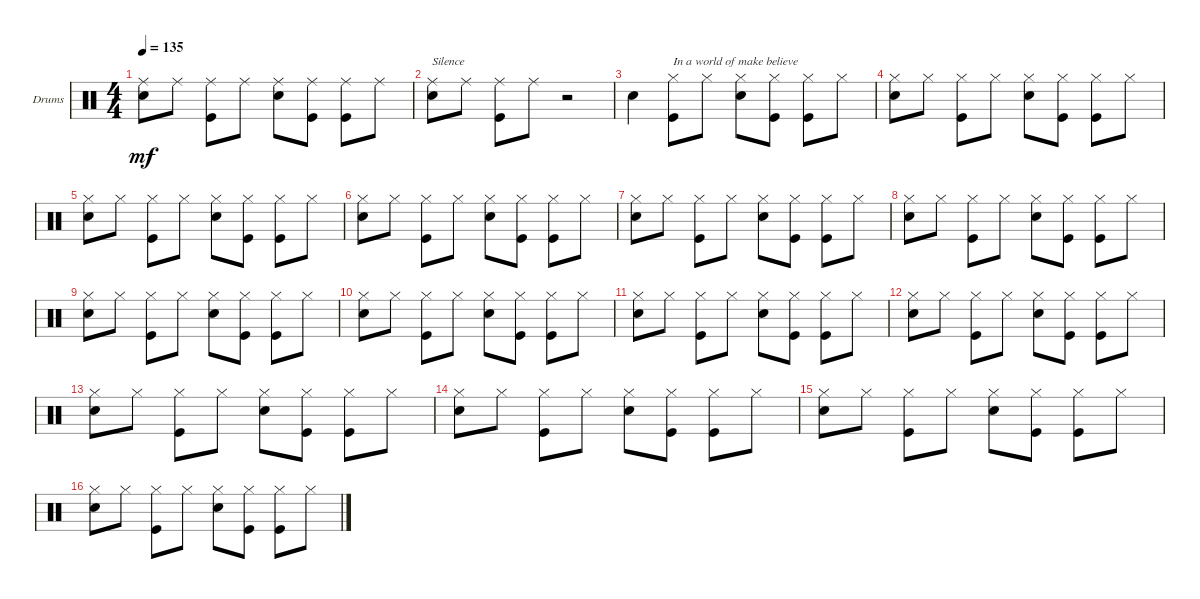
\bracketExtendMode groupsimilarinstruments
\firstSystemTrackNameOrientation horizontal
\otherSystemsTrackNameOrientation horizontal
\track ("Drumkit" "Drums") {instrument percussion}
\staff {score}
\articulation defaults
\ts (4 4)
\tempo 135
\clef neutral
\ks c
("Snare (hit) 2" "Ride (middle)").8{dy mf} "Ride (middle)".8 ("Kick (hit)" "Ride (middle)").8 "Ride (middle)".8 ("Snare (hit) 2" "Ride (middle)").8 ("Kick (hit)" "Ride (middle)").8 ("Kick (hit)" "Ride (middle)").8 "Ride (middle)".8 |
("Snare (hit) 2" "Ride (middle)").8{txt "Silence"} "Ride (middle)".8 ("Kick (hit)" "Ride (middle)").8 "Ride (middle)".8 r.2 |
"Snare (hit) 2".4 ("Hi-Hat (closed)" "Kick (hit)").8{txt "In a world of make believe"} "Hi-Hat (closed)".8 ("Hi-Hat (closed)" "Snare (hit) 2").8 ("Hi-Hat (closed)" "Kick (hit)").8 ("Hi-Hat (closed)" "Kick (hit)").8 "Hi-Hat (closed)".8 |
("Snare (hit) 2" "Hi-Hat (closed)").8 "Hi-Hat (closed)".8 ("Hi-Hat (closed)" "Kick (hit)").8 "Hi-Hat (closed)".8 ("Hi-Hat (closed)" "Snare (hit) 2").8 ("Hi-Hat (closed)" "Kick (hit)").8 ("Hi-Hat (closed)" "Kick (hit)").8 "Hi-Hat (closed)".8 |
("Snare (hit) 2" "Hi-Hat (closed)").8 "Hi-Hat (closed)".8 ("Hi-Hat (closed)" "Kick (hit)").8 "Hi-Hat (closed)".8 ("Hi-Hat (closed)" "Snare (hit) 2").8 ("Hi-Hat (closed)" "Kick (hit)").8 ("Hi-Hat (closed)" "Kick (hit)").8 "Hi-Hat (closed)".8 |
("Snare (hit) 2" "Hi-Hat (closed)").8 "Hi-Hat (closed)".8 ("Hi-Hat (closed)" "Kick (hit)").8 "Hi-Hat (closed)".8 ("Hi-Hat (closed)" "Snare (hit) 2").8 ("Hi-Hat (closed)" "Kick (hit)").8 ("Hi-Hat (closed)" "Kick (hit)").8 "Hi-Hat (closed)".8 |
("Snare (hit) 2" "Hi-Hat (closed)").8 "Hi-Hat (closed)".8 ("Hi-Hat (closed)" "Kick (hit)").8 "Hi-Hat (closed)".8 ("Hi-Hat (closed)" "Snare (hit) 2").8 ("Hi-Hat (closed)" "Kick (hit)").8 ("Hi-Hat (closed)" "Kick (hit)").8 "Hi-Hat (closed)".8 |
("Snare (hit) 2" "Hi-Hat (closed)").8 "Hi-Hat (closed)".8 ("Hi-Hat (closed)" "Kick (hit)").8 "Hi-Hat (closed)".8 ("Hi-Hat (closed)" "Snare (hit) 2").8 ("Hi-Hat (closed)" "Kick (hit)").8 ("Hi-Hat (closed)" "Kick (hit)").8 "Hi-Hat (closed)".8 |
("Snare (hit) 2" "Hi-Hat (closed)").8 "Hi-Hat (closed)".8 ("Hi-Hat (closed)" "Kick (hit)").8 "Hi-Hat (closed)".8 ("Hi-Hat (closed)" "Snare (hit) 2").8 ("Hi-Hat (closed)" "Kick (hit)").8 ("Hi-Hat (closed)" "Kick (hit)").8 "Hi-Hat (closed)".8 |
("Snare (hit) 2" "Hi-Hat (closed)").8 "Hi-Hat (closed)".8 ("Hi-Hat (closed)" "Kick (hit)").8 "Hi-Hat (closed)".8 ("Hi-Hat (closed)" "Snare (hit) 2").8 ("Hi-Hat (closed)" "Kick (hit)").8 ("Hi-Hat (closed)" "Kick (hit)").8 "Hi-Hat (closed)".8 |
("Snare (hit) 2" "Hi-Hat (closed)").8 "Hi-Hat (closed)".8 ("Hi-Hat (closed)" "Kick (hit)").8 "Hi-Hat (closed)".8 ("Hi-Hat (closed)" "Snare (hit) 2").8 ("Hi-Hat (closed)" "Kick (hit)").8 ("Hi-Hat (closed)" "Kick (hit)").8 "Hi-Hat (closed)".8 |
("Snare (hit) 2" "Hi-Hat (closed)").8 "Hi-Hat (closed)".8 ("Hi-Hat (closed)" "Kick (hit)").8 "Hi-Hat (closed)".8 ("Hi-Hat (closed)" "Snare (hit) 2").8 ("Hi-Hat (closed)" "Kick (hit)").8 ("Hi-Hat (closed)" "Kick (hit)").8 "Hi-Hat (closed)".8 |
("Snare (hit) 2" "Hi-Hat (closed)").8 "Hi-Hat (closed)".8 ("Hi-Hat (closed)" "Kick (hit)").8 "Hi-Hat (closed)".8 ("Hi-Hat (closed)" "Snare (hit) 2").8 ("Hi-Hat (closed)" "Kick (hit)").8 ("Hi-Hat (closed)" "Kick (hit)").8 "Hi-Hat (closed)".8 |
("Snare (hit) 2" "Hi-Hat (closed)").8 "Hi-Hat (closed)".8 ("Hi-Hat (closed)" "Kick (hit)").8 "Hi-Hat (closed)".8 ("Hi-Hat (closed)" "Snare (hit) 2").8 ("Hi-Hat (closed)" "Kick (hit)").8 ("Hi-Hat (closed)" "Kick (hit)").8 "Hi-Hat (closed)".8 |
("Snare (hit) 2" "Hi-Hat (closed)").8 "Hi-Hat (closed)".8 ("Hi-Hat (closed)" "Kick (hit)").8 "Hi-Hat (closed)".8 ("Hi-Hat (closed)" "Snare (hit) 2").8 ("Hi-Hat (closed)" "Kick (hit)").8 ("Hi-Hat (closed)" "Kick (hit)").8 "Hi-Hat (closed)".8 |
("Snare (hit) 2" "Hi-Hat (closed)").8 "Hi-Hat (closed)".8 ("Hi-Hat (closed)" "Kick (hit)").8 "Hi-Hat (closed)".8 ("Hi-Hat (closed)" "Snare (hit) 2").8 ("Hi-Hat (closed)" "Kick (hit)").8 ("Hi-Hat (closed)" "Kick (hit)").8 "Hi-Hat (closed)".8
